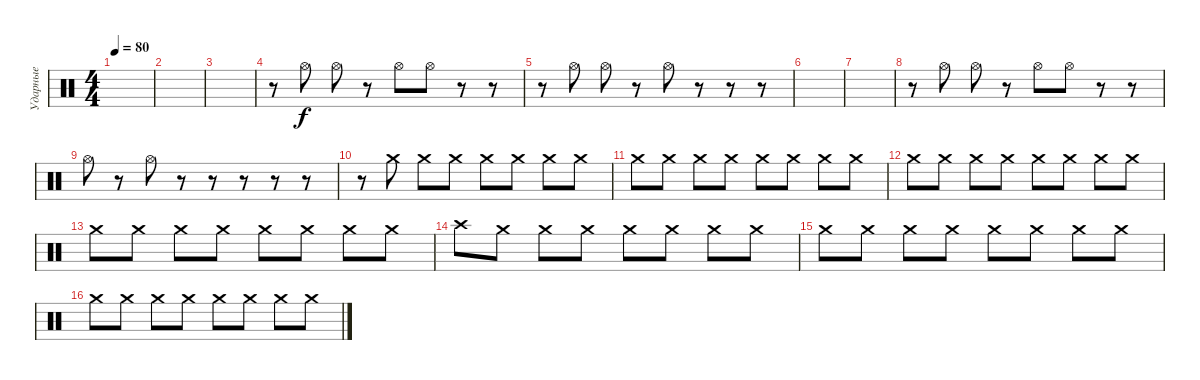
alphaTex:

\track ("Ударные" "Ударные") {instrument percussion}
\staff {score}
\articulation defaults
\ts (4 4)
\tempo 80
\clef neutral
\ks c
|
|
|
r.8 "Hi-Hat (open)".8 "Hi-Hat (open)".8 r.8 "Hi-Hat (open)".8 "Hi-Hat (open)".8 r.8 r.8 |
r.8 "Hi-Hat (open)".8 "Hi-Hat (open)".8 r.8 "Hi-Hat (open)".8 r.8 r.8 r.8 |
|
|
r.8 "Hi-Hat (open)".8 "Hi-Hat (open)".8 r.8 "Hi-Hat (open)".8 "Hi-Hat (open)".8 r.8 r.8 |
"Hi-Hat (open)".8 r.8 "Hi-Hat (open)".8 r.8 r.8 r.8 r.8 r.8 |
r.8 "Crash medium (hit)".8 "Crash medium (hit)".8 "Crash medium (hit)".8 "Crash medium (hit)".8 "Crash medium (hit)".8 "Crash medium (hit)".8 "Crash medium (hit)".8 |
"Crash medium (hit)".8 "Crash medium (hit)".8 "Crash medium (hit)".8 "Crash medium (hit)".8 "Crash medium (hit)".8 "Crash medium (hit)".8 "Crash medium (hit)".8 "Crash medium (hit)".8 |
"Crash medium (hit)".8 "Crash medium (hit)".8 "Crash medium (hit)".8 "Crash medium (hit)".8 "Crash medium (hit)".8 "Crash medium (hit)".8 "Crash medium (hit)".8 "Crash medium (hit)".8 |
"Crash medium (hit)".8 "Crash medium (hit)".8 "Crash medium (hit)".8 "Crash medium (hit)".8 "Crash medium (hit)".8 "Crash medium (hit)".8 "Crash medium (hit)".8 "Crash medium (hit)".8 |
"Crash high (hit)".8 "Crash medium (hit)".8 "Crash medium (hit)".8 "Crash medium (hit)".8 "Crash medium (hit)".8 "Crash medium (hit)".8 "Crash medium (hit)".8 "Crash medium (hit)".8 |
"Crash medium (hit)".8 "Crash medium (hit)".8 "Crash medium (hit)".8 "Crash medium (hit)".8 "Crash medium (hit)".8 "Crash medium (hit)".8 "Crash medium (hit)".8 "Crash medium (hit)".8 |
"Crash medium (hit)".8 "Crash medium (hit)".8 "Crash medium (hit)".8 "Crash medium (hit)".8 "Crash medium (hit)".8 "Crash medium (hit)".8 "Crash medium (hit)".8 "Crash medium (hit)".8
